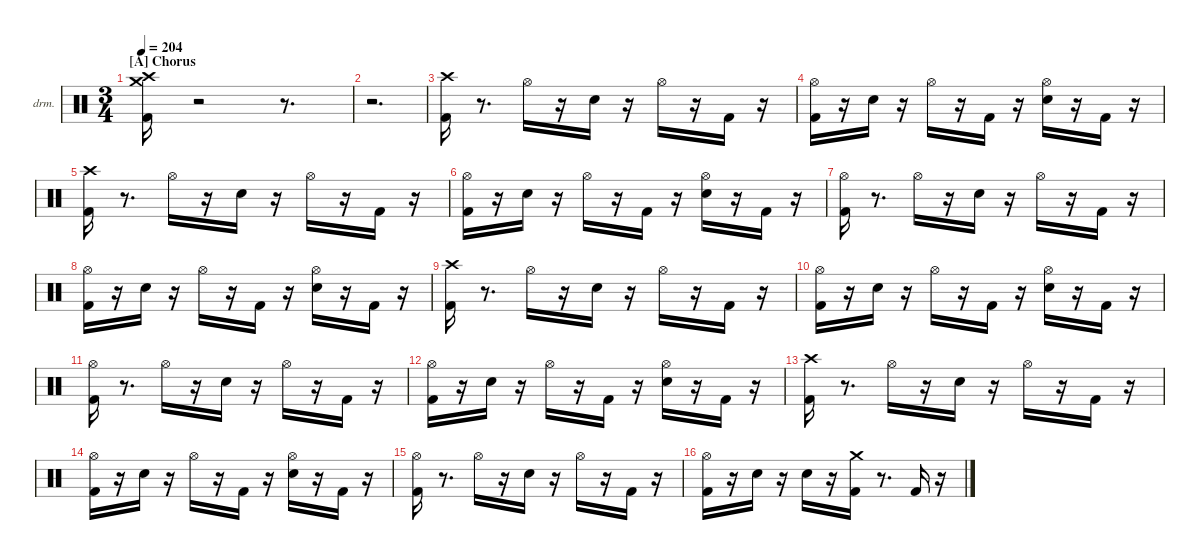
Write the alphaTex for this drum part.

\hideDynamics
\bracketExtendMode nobrackets
\firstSystemTrackNameOrientation horizontal
\track ("drums" "drm.") {instrument percussion}
\staff {score}
\articulation defaults
\ts (3 4)
\section ("A" "Chorus")
\tempo 204
\clef neutral
\ks aminor
("Kick (hit) 2" "Crash high (hit)"{acc #} "Crash medium (hit)").16{dy fff beam Down} r.2{beam Down} r.8{d beam Down} |
r.2{d beam Down} |
("Kick (hit) 2" "Crash high (hit)"{acc #}).16{beam Down} r.8{d beam Down} "Hi-Hat (open)"{acc #}.16{dy mf beam Down} r.16{beam Down} "Snare (hit) 2".16{dy ff beam Down} r.16{beam Down} "Hi-Hat (open)"{acc #}.16{dy f beam Down} r.16{beam Down} "Kick (hit) 2".16{dy mf beam Down} r.16{beam Down} |
("Kick (hit) 2" "Hi-Hat (open)"{acc #}).16{dy fff beam Down} r.16{beam Down} "Snare (hit) 2".16{dy ff beam Down} r.16{beam Down} "Hi-Hat (open)"{acc #}.16{dy mf beam Down} r.16{beam Down} "Kick (hit) 2".16{dy ff beam Down} r.16{beam Down} ("Snare (hit) 2" "Hi-Hat (open)"{acc #}).16{dy f beam Down} r.16{beam Down} "Kick (hit) 2".16{dy mp beam Down} r.16{beam Down} |
("Kick (hit) 2" "Crash high (hit)"{acc #}).16{dy fff beam Down} r.8{d beam Down} "Hi-Hat (open)"{acc #}.16{dy mf beam Down} r.16{beam Down} "Snare (hit) 2".16{dy ff beam Down} r.16{beam Down} "Hi-Hat (open)"{acc #}.16{dy f beam Down} r.16{beam Down} "Kick (hit) 2".16{dy mf beam Down} r.16{beam Down} |
("Kick (hit) 2" "Hi-Hat (open)"{acc #}).16{dy fff beam Down} r.16{beam Down} "Snare (hit) 2".16{dy ff beam Down} r.16{beam Down} "Hi-Hat (open)"{acc #}.16{dy mp beam Down} r.16{beam Down} "Kick (hit) 2".16{dy ff beam Down} r.16{beam Down} ("Snare (hit) 2" "Hi-Hat (open)"{acc #}).16{dy f beam Down} r.16{beam Down} "Kick (hit) 2".16{dy mp beam Down} r.16{beam Down} |
("Kick (hit) 2" "Hi-Hat (open)"{acc #}).16{dy fff beam Down} r.8{d beam Down} "Hi-Hat (open)"{acc #}.16{dy mp beam Down} r.16{beam Down} "Snare (hit) 2".16{dy ff beam Down} r.16{beam Down} "Hi-Hat (open)"{acc #}.16{dy f beam Down} r.16{beam Down} "Kick (hit) 2".16{dy mf beam Down} r.16{beam Down} |
("Kick (hit) 2" "Hi-Hat (open)"{acc #}).16{dy fff beam Down} r.16{beam Down} "Snare (hit) 2".16{dy ff beam Down} r.16{beam Down} "Hi-Hat (open)"{acc #}.16{dy mf beam Down} r.16{beam Down} "Kick (hit) 2".16{dy ff beam Down} r.16{beam Down} ("Snare (hit) 2" "Hi-Hat (open)"{acc #}).16{dy f beam Down} r.16{beam Down} "Kick (hit) 2".16{dy mp beam Down} r.16{beam Down} |
("Kick (hit) 2" "Crash high (hit)"{acc #}).16{dy fff beam Down} r.8{d beam Down} "Hi-Hat (open)"{acc #}.16{dy mf beam Down} r.16{beam Down} "Snare (hit) 2".16{dy ff beam Down} r.16{beam Down} "Hi-Hat (open)"{acc #}.16{dy f beam Down} r.16{beam Down} "Kick (hit) 2".16{dy mf beam Down} r.16{beam Down} |
("Kick (hit) 2" "Hi-Hat (open)"{acc #}).16{dy fff beam Down} r.16{beam Down} "Snare (hit) 2".16{dy ff beam Down} r.16{beam Down} "Hi-Hat (open)"{acc #}.16{dy mp beam Down} r.16{beam Down} "Kick (hit) 2".16{dy ff beam Down} r.16{beam Down} ("Snare (hit) 2" "Hi-Hat (open)"{acc #}).16{dy f beam Down} r.16{beam Down} "Kick (hit) 2".16{dy mp beam Down} r.16{beam Down} |
("Kick (hit) 2" "Hi-Hat (open)"{acc #}).16{dy fff beam Down} r.8{d beam Down} "Hi-Hat (open)"{acc #}.16{dy mp beam Down} r.16{beam Down} "Snare (hit) 2".16{dy ff beam Down} r.16{beam Down} "Hi-Hat (open)"{acc #}.16{dy f beam Down} r.16{beam Down} "Kick (hit) 2".16{dy mf beam Down} r.16{beam Down} |
("Kick (hit) 2" "Hi-Hat (open)"{acc #}).16{dy fff beam Down} r.16{beam Down} "Snare (hit) 2".16{dy ff beam Down} r.16{beam Down} "Hi-Hat (open)"{acc #}.16{dy mf beam Down} r.16{beam Down} "Kick (hit) 2".16{dy ff beam Down} r.16{beam Down} ("Snare (hit) 2" "Hi-Hat (open)"{acc #}).16{dy f beam Down} r.16{beam Down} "Kick (hit) 2".16{dy mp beam Down} r.16{beam Down} |
("Kick (hit) 2" "Crash high (hit)"{acc #}).16{dy fff beam Down} r.8{d beam Down} "Hi-Hat (open)"{acc #}.16{dy mf beam Down} r.16{beam Down} "Snare (hit) 2".16{dy ff beam Down} r.16{beam Down} "Hi-Hat (open)"{acc #}.16{dy f beam Down} r.16{beam Down} "Kick (hit) 2".16{dy mf beam Down} r.16{beam Down} |
("Kick (hit) 2" "Hi-Hat (open)"{acc #}).16{dy fff beam Down} r.16{beam Down} "Snare (hit) 2".16{dy ff beam Down} r.16{beam Down} "Hi-Hat (open)"{acc #}.16{dy mp beam Down} r.16{beam Down} "Kick (hit) 2".16{dy ff beam Down} r.16{beam Down} ("Snare (hit) 2" "Hi-Hat (open)"{acc #}).16{dy f beam Down} r.16{beam Down} "Kick (hit) 2".16{dy mp beam Down} r.16{beam Down} |
("Kick (hit) 2" "Hi-Hat (open)"{acc #}).16{dy fff beam Down} r.8{d beam Down} "Hi-Hat (open)"{acc #}.16{dy mp beam Down} r.16{beam Down} "Snare (hit) 2".16{dy ff beam Down} r.16{beam Down} "Hi-Hat (open)"{acc #}.16{dy f beam Down} r.16{beam Down} "Kick (hit) 2".16{dy mf beam Down} r.16{beam Down} |
("Kick (hit) 2" "Hi-Hat (open)"{acc #}).16{dy fff beam Down} r.16{beam Down} "Snare (hit) 2".16{dy ff beam Down} r.16{beam Down} "Snare (hit) 2".16{dy p beam Down} r.16{beam Down} ("Kick (hit) 2" "Crash medium (hit)").16{dy ff beam Down} r.8{d beam Down} "Kick (hit) 2".16{dy mf beam Up} r.16{beam Down}
